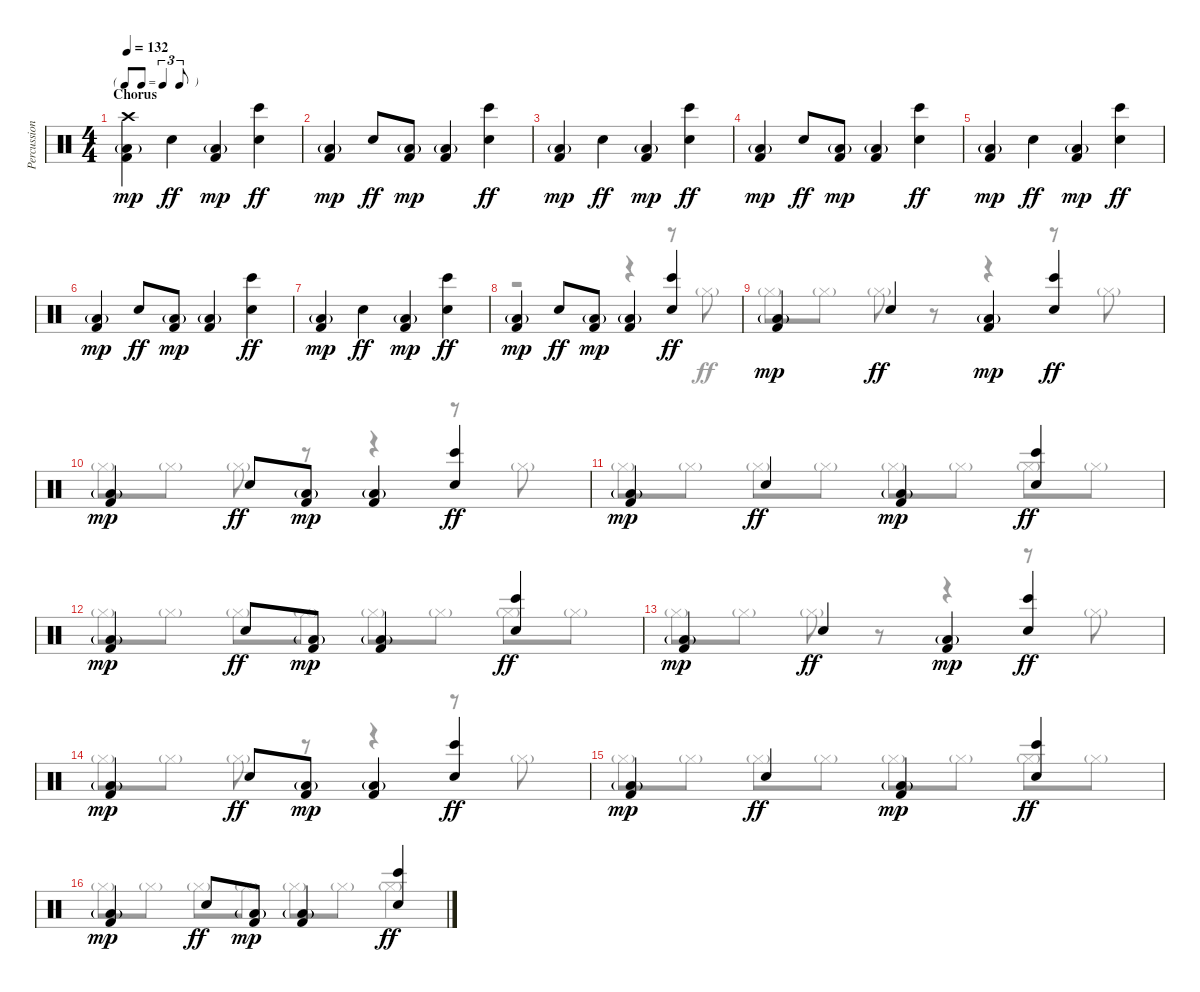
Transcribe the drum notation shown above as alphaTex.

\track ("Percussion" "Percussion") {instrument percussion}
\staff {score}
\articulation defaults
\voice
\ts (4 4)
\tf triplet8th
\section ("" "Chorus")
\tempo 132
\clef neutral
\ks c
("Kick (hit) 2" "Low Floor Tom (hit)"{g} "Crash high (hit)").4{dy mp} "Snare (hit) 2".4{dy ff} ("Kick (hit) 2" "Low Floor Tom (hit)"{g}).4{dy mp} ("Snare (hit) 2" "Bongo High (hit)").4{dy ff} |
("Kick (hit) 2" "Low Floor Tom (hit)"{g}).4{dy mp} "Snare (hit) 2".8{dy ff} ("Kick (hit) 2" "Low Floor Tom (hit)"{g}).8{dy mp} ("Kick (hit) 2" "Low Floor Tom (hit)"{g}).4 ("Snare (hit) 2" "Bongo High (hit)").4{dy ff} |
("Kick (hit) 2" "Low Floor Tom (hit)"{g}).4{dy mp} "Snare (hit) 2".4{dy ff} ("Kick (hit) 2" "Low Floor Tom (hit)"{g}).4{dy mp} ("Snare (hit) 2" "Bongo High (hit)").4{dy ff} |
("Kick (hit) 2" "Low Floor Tom (hit)"{g}).4{dy mp} "Snare (hit) 2".8{dy ff} ("Kick (hit) 2" "Low Floor Tom (hit)"{g}).8{dy mp} ("Kick (hit) 2" "Low Floor Tom (hit)"{g}).4 ("Snare (hit) 2" "Bongo High (hit)").4{dy ff} |
("Kick (hit) 2" "Low Floor Tom (hit)"{g}).4{dy mp} "Snare (hit) 2".4{dy ff} ("Kick (hit) 2" "Low Floor Tom (hit)"{g}).4{dy mp} ("Snare (hit) 2" "Bongo High (hit)").4{dy ff} |
("Kick (hit) 2" "Low Floor Tom (hit)"{g}).4{dy mp} "Snare (hit) 2".8{dy ff} ("Kick (hit) 2" "Low Floor Tom (hit)"{g}).8{dy mp} ("Kick (hit) 2" "Low Floor Tom (hit)"{g}).4 ("Snare (hit) 2" "Bongo High (hit)").4{dy ff} |
("Kick (hit) 2" "Low Floor Tom (hit)"{g}).4{dy mp} "Snare (hit) 2".4{dy ff} ("Kick (hit) 2" "Low Floor Tom (hit)"{g}).4{dy mp} ("Snare (hit) 2" "Bongo High (hit)").4{dy ff} |
("Kick (hit) 2" "Low Floor Tom (hit)"{g}).4{dy mp} "Snare (hit) 2".8{dy ff} ("Kick (hit) 2" "Low Floor Tom (hit)"{g}).8{dy mp} ("Kick (hit) 2" "Low Floor Tom (hit)"{g}).4 ("Snare (hit) 2" "Bongo High (hit)").4{dy ff} |
("Kick (hit) 2" "Low Floor Tom (hit)"{g}).4{dy mp} "Snare (hit) 2".4{dy ff} ("Kick (hit) 2" "Low Floor Tom (hit)"{g}).4{dy mp} ("Snare (hit) 2" "Bongo High (hit)").4{dy ff} |
("Kick (hit) 2" "Low Floor Tom (hit)"{g}).4{dy mp} "Snare (hit) 2".8{dy ff} ("Kick (hit) 2" "Low Floor Tom (hit)"{g}).8{dy mp} ("Kick (hit) 2" "Low Floor Tom (hit)"{g}).4 ("Snare (hit) 2" "Bongo High (hit)").4{dy ff} |
("Kick (hit) 2" "Low Floor Tom (hit)"{g}).4{dy mp} "Snare (hit) 2".4{dy ff} ("Kick (hit) 2" "Low Floor Tom (hit)"{g}).4{dy mp} ("Snare (hit) 2" "Bongo High (hit)").4{dy ff} |
("Kick (hit) 2" "Low Floor Tom (hit)"{g}).4{dy mp} "Snare (hit) 2".8{dy ff} ("Kick (hit) 2" "Low Floor Tom (hit)"{g}).8{dy mp} ("Kick (hit) 2" "Low Floor Tom (hit)"{g}).4 ("Snare (hit) 2" "Bongo High (hit)").4{dy ff} |
("Kick (hit) 2" "Low Floor Tom (hit)"{g}).4{dy mp} "Snare (hit) 2".4{dy ff} ("Kick (hit) 2" "Low Floor Tom (hit)"{g}).4{dy mp} ("Snare (hit) 2" "Bongo High (hit)").4{dy ff} |
("Kick (hit) 2" "Low Floor Tom (hit)"{g}).4{dy mp} "Snare (hit) 2".8{dy ff} ("Kick (hit) 2" "Low Floor Tom (hit)"{g}).8{dy mp} ("Kick (hit) 2" "Low Floor Tom (hit)"{g}).4 ("Snare (hit) 2" "Bongo High (hit)").4{dy ff} |
("Kick (hit) 2" "Low Floor Tom (hit)"{g}).4{dy mp} "Snare (hit) 2".4{dy ff} ("Kick (hit) 2" "Low Floor Tom (hit)"{g}).4{dy mp} ("Snare (hit) 2" "Bongo High (hit)").4{dy ff} |
("Kick (hit) 2" "Low Floor Tom (hit)"{g}).4{dy mp} "Snare (hit) 2".8{dy ff} ("Kick (hit) 2" "Low Floor Tom (hit)"{g}).8{dy mp} ("Kick (hit) 2" "Low Floor Tom (hit)"{g}).4 ("Snare (hit) 2" "Bongo High (hit)").4{dy ff}
\voice
\clef neutral
\ottava regular
\simile none
\ks c
|
|
|
|
|
|
|
r.2 r.4 r.8 "Hi-Hat (closed)"{g}.8 |
"Hi-Hat (closed)"{g}.8 "Hi-Hat (closed)"{g}.8 "Hi-Hat (closed)"{g}.8 r.8 r.4 r.8 "Hi-Hat (closed)"{g}.8 |
"Hi-Hat (closed)"{g}.8 "Hi-Hat (closed)"{g}.8 "Hi-Hat (closed)"{g}.8 r.8 r.4 r.8 "Hi-Hat (closed)"{g}.8 |
"Hi-Hat (closed)"{g}.8 "Hi-Hat (closed)"{g}.8 "Hi-Hat (closed)"{g}.8 "Hi-Hat (closed)"{g}.8 "Hi-Hat (closed)"{g}.8 "Hi-Hat (closed)"{g}.8 "Hi-Hat (closed)"{g}.8 "Hi-Hat (closed)"{g}.8 |
"Hi-Hat (closed)"{g}.8 "Hi-Hat (closed)"{g}.8 "Hi-Hat (closed)"{g}.8 "Hi-Hat (closed)"{g}.8 "Hi-Hat (closed)"{g}.8 "Hi-Hat (closed)"{g}.8 "Hi-Hat (closed)"{g}.8 "Hi-Hat (closed)"{g}.8 |
"Hi-Hat (closed)"{g}.8 "Hi-Hat (closed)"{g}.8 "Hi-Hat (closed)"{g}.8 r.8 r.4 r.8 "Hi-Hat (closed)"{g}.8 |
"Hi-Hat (closed)"{g}.8 "Hi-Hat (closed)"{g}.8 "Hi-Hat (closed)"{g}.8 r.8 r.4 r.8 "Hi-Hat (closed)"{g}.8 |
"Hi-Hat (closed)"{g}.8 "Hi-Hat (closed)"{g}.8 "Hi-Hat (closed)"{g}.8 "Hi-Hat (closed)"{g}.8 "Hi-Hat (closed)"{g}.8 "Hi-Hat (closed)"{g}.8 "Hi-Hat (closed)"{g}.8 "Hi-Hat (closed)"{g}.8 |
"Hi-Hat (closed)"{g}.8 "Hi-Hat (closed)"{g}.8 "Hi-Hat (closed)"{g}.8 "Hi-Hat (closed)"{g}.8 "Hi-Hat (closed)"{g}.8 "Hi-Hat (closed)"{g}.8 "Hi-Hat (closed)"{g}.4
